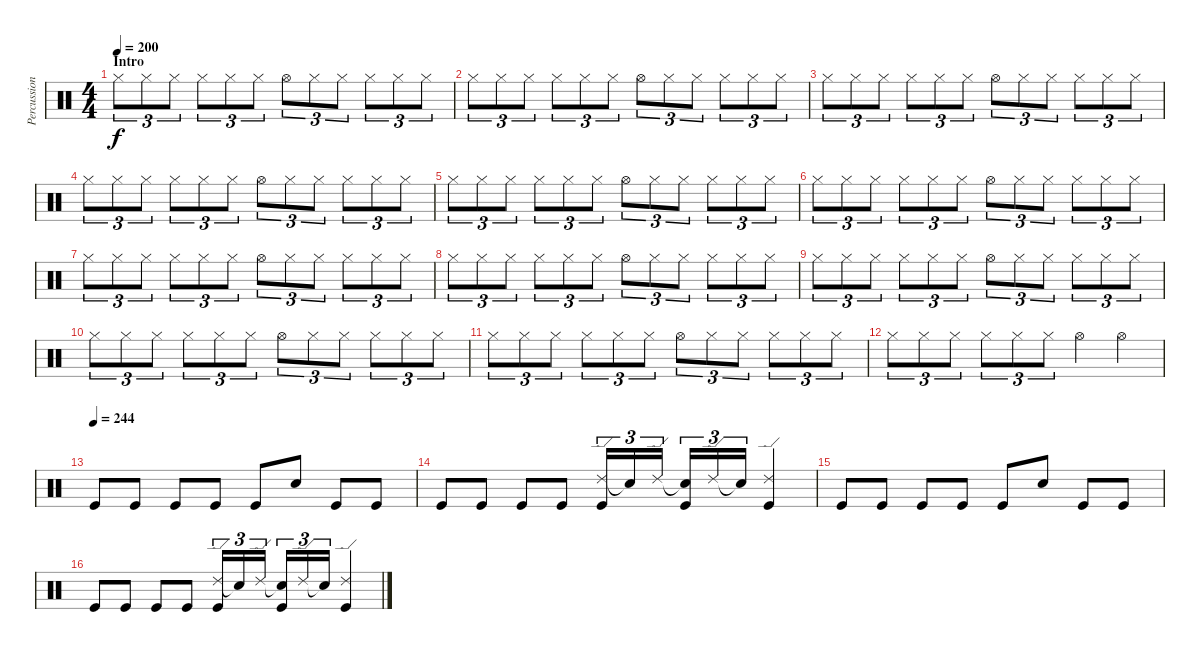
\track ("Percussion" "Percussion") {instrument percussion}
\staff {score}
\articulation defaults
\ts (4 4)
\section ("" "Intro")
\tempo 200
\tempo 260
\tempo 200
\clef neutral
\ks c "Hi-Hat (closed)".8{tu (3 2) dy f} "Hi-Hat (closed)".8{tu (3 2)} "Hi-Hat (closed)".8{tu (3 2)} "Hi-Hat (closed)".8{tu (3 2)} "Hi-Hat (closed)".8{tu (3 2)} "Hi-Hat (closed)".8{tu (3 2)} "Hi-Hat (open)".8{tu (3 2)} "Hi-Hat (closed)".8{tu (3 2)} "Hi-Hat (closed)".8{tu (3 2)} "Hi-Hat (closed)".8{tu (3 2)} "Hi-Hat (closed)".8{tu (3 2)} "Hi-Hat (closed)".8{tu (3 2)}
|
"Hi-Hat (closed)".8{tu (3 2)} "Hi-Hat (closed)".8{tu (3 2)} "Hi-Hat (closed)".8{tu (3 2)} "Hi-Hat (closed)".8{tu (3 2)} "Hi-Hat (closed)".8{tu (3 2)} "Hi-Hat (closed)".8{tu (3 2)} "Hi-Hat (open)".8{tu (3 2)} "Hi-Hat (closed)".8{tu (3 2)} "Hi-Hat (closed)".8{tu (3 2)} "Hi-Hat (closed)".8{tu (3 2)} "Hi-Hat (closed)".8{tu (3 2)} "Hi-Hat (closed)".8{tu (3 2)} |
"Hi-Hat (closed)".8{tu (3 2)} "Hi-Hat (closed)".8{tu (3 2)} "Hi-Hat (closed)".8{tu (3 2)} "Hi-Hat (closed)".8{tu (3 2)} "Hi-Hat (closed)".8{tu (3 2)} "Hi-Hat (closed)".8{tu (3 2)} "Hi-Hat (open)".8{tu (3 2)} "Hi-Hat (closed)".8{tu (3 2)} "Hi-Hat (closed)".8{tu (3 2)} "Hi-Hat (closed)".8{tu (3 2)} "Hi-Hat (closed)".8{tu (3 2)} "Hi-Hat (closed)".8{tu (3 2)} |
"Hi-Hat (closed)".8{tu (3 2)} "Hi-Hat (closed)".8{tu (3 2)} "Hi-Hat (closed)".8{tu (3 2)} "Hi-Hat (closed)".8{tu (3 2)} "Hi-Hat (closed)".8{tu (3 2)} "Hi-Hat (closed)".8{tu (3 2)} "Hi-Hat (open)".8{tu (3 2)} "Hi-Hat (closed)".8{tu (3 2)} "Hi-Hat (closed)".8{tu (3 2)} "Hi-Hat (closed)".8{tu (3 2)} "Hi-Hat (closed)".8{tu (3 2)} "Hi-Hat (closed)".8{tu (3 2)} |
"Hi-Hat (closed)".8{tu (3 2)} "Hi-Hat (closed)".8{tu (3 2)} "Hi-Hat (closed)".8{tu (3 2)} "Hi-Hat (closed)".8{tu (3 2)} "Hi-Hat (closed)".8{tu (3 2)} "Hi-Hat (closed)".8{tu (3 2)} "Hi-Hat (open)".8{tu (3 2)} "Hi-Hat (closed)".8{tu (3 2)} "Hi-Hat (closed)".8{tu (3 2)} "Hi-Hat (closed)".8{tu (3 2)} "Hi-Hat (closed)".8{tu (3 2)} "Hi-Hat (closed)".8{tu (3 2)} |
"Hi-Hat (closed)".8{tu (3 2)} "Hi-Hat (closed)".8{tu (3 2)} "Hi-Hat (closed)".8{tu (3 2)} "Hi-Hat (closed)".8{tu (3 2)} "Hi-Hat (closed)".8{tu (3 2)} "Hi-Hat (closed)".8{tu (3 2)} "Hi-Hat (open)".8{tu (3 2)} "Hi-Hat (closed)".8{tu (3 2)} "Hi-Hat (closed)".8{tu (3 2)} "Hi-Hat (closed)".8{tu (3 2)} "Hi-Hat (closed)".8{tu (3 2)} "Hi-Hat (closed)".8{tu (3 2)} |
"Hi-Hat (closed)".8{tu (3 2)} "Hi-Hat (closed)".8{tu (3 2)} "Hi-Hat (closed)".8{tu (3 2)} "Hi-Hat (closed)".8{tu (3 2)} "Hi-Hat (closed)".8{tu (3 2)} "Hi-Hat (closed)".8{tu (3 2)} "Hi-Hat (open)".8{tu (3 2)} "Hi-Hat (closed)".8{tu (3 2)} "Hi-Hat (closed)".8{tu (3 2)} "Hi-Hat (closed)".8{tu (3 2)} "Hi-Hat (closed)".8{tu (3 2)} "Hi-Hat (closed)".8{tu (3 2)} |
"Hi-Hat (closed)".8{tu (3 2)} "Hi-Hat (closed)".8{tu (3 2)} "Hi-Hat (closed)".8{tu (3 2)} "Hi-Hat (closed)".8{tu (3 2)} "Hi-Hat (closed)".8{tu (3 2)} "Hi-Hat (closed)".8{tu (3 2)} "Hi-Hat (open)".8{tu (3 2)} "Hi-Hat (closed)".8{tu (3 2)} "Hi-Hat (closed)".8{tu (3 2)} "Hi-Hat (closed)".8{tu (3 2)} "Hi-Hat (closed)".8{tu (3 2)} "Hi-Hat (closed)".8{tu (3 2)} |
"Hi-Hat (closed)".8{tu (3 2)} "Hi-Hat (closed)".8{tu (3 2)} "Hi-Hat (closed)".8{tu (3 2)} "Hi-Hat (closed)".8{tu (3 2)} "Hi-Hat (closed)".8{tu (3 2)} "Hi-Hat (closed)".8{tu (3 2)} "Hi-Hat (open)".8{tu (3 2)} "Hi-Hat (closed)".8{tu (3 2)} "Hi-Hat (closed)".8{tu (3 2)} "Hi-Hat (closed)".8{tu (3 2)} "Hi-Hat (closed)".8{tu (3 2)} "Hi-Hat (closed)".8{tu (3 2)} |
"Hi-Hat (closed)".8{tu (3 2)} "Hi-Hat (closed)".8{tu (3 2)} "Hi-Hat (closed)".8{tu (3 2)} "Hi-Hat (closed)".8{tu (3 2)} "Hi-Hat (closed)".8{tu (3 2)} "Hi-Hat (closed)".8{tu (3 2)} "Hi-Hat (open)".8{tu (3 2)} "Hi-Hat (closed)".8{tu (3 2)} "Hi-Hat (closed)".8{tu (3 2)} "Hi-Hat (closed)".8{tu (3 2)} "Hi-Hat (closed)".8{tu (3 2)} "Hi-Hat (closed)".8{tu (3 2)} |
"Hi-Hat (closed)".8{tu (3 2)} "Hi-Hat (closed)".8{tu (3 2)} "Hi-Hat (closed)".8{tu (3 2)} "Hi-Hat (closed)".8{tu (3 2)} "Hi-Hat (closed)".8{tu (3 2)} "Hi-Hat (closed)".8{tu (3 2)} "Hi-Hat (open)".8{tu (3 2)} "Hi-Hat (closed)".8{tu (3 2)} "Hi-Hat (closed)".8{tu (3 2)} "Hi-Hat (closed)".8{tu (3 2)} "Hi-Hat (closed)".8{tu (3 2)} "Hi-Hat (closed)".8{tu (3 2)} |
"Hi-Hat (closed)".8{tu (3 2)} "Hi-Hat (closed)".8{tu (3 2)} "Hi-Hat (closed)".8{tu (3 2)} "Hi-Hat (closed)".8{tu (3 2)} "Hi-Hat (closed)".8{tu (3 2)} "Hi-Hat (closed)".8{tu (3 2)} "Hi-Hat (open)".4 "Hi-Hat (open)".4 |
\tempo (244)
"Kick (hit)".8 "Kick (hit)".8 "Kick (hit)".8 "Kick (hit)".8 "Kick (hit)".8 "Snare (hit) 2".8 "Kick (hit)".8 "Kick (hit)".8 |
"Kick (hit)".8 "Kick (hit)".8 "Kick (hit)".8 "Kick (hit)".8 ("Ride (edge) 2" "Kick (hit)").16{tu (3 2)} "Snare (hit)"{t}.16{tu (3 2)} "Ride (edge) 2".16{tu (3 2)} ("Snare (hit)"{t} "Kick (hit)").16{tu (3 2)} "Ride (edge) 2".16{tu (3 2)} "Snare (hit)"{t}.16{tu (3 2)} ("Ride (edge) 2" "Kick (hit)").4 |
"Kick (hit)".8 "Kick (hit)".8 "Kick (hit)".8 "Kick (hit)".8 "Kick (hit)".8 "Snare (hit) 2".8 "Kick (hit)".8 "Kick (hit)".8 |
"Kick (hit)".8 "Kick (hit)".8 "Kick (hit)".8 "Kick (hit)".8 ("Ride (edge) 2" "Kick (hit)").16{tu (3 2)} "Snare (hit)"{t}.16{tu (3 2)} "Ride (edge) 2".16{tu (3 2)} ("Snare (hit)"{t} "Kick (hit)").16{tu (3 2)} "Ride (edge) 2".16{tu (3 2)} "Snare (hit)"{t}.16{tu (3 2)} ("Ride (edge) 2" "Kick (hit)").4
